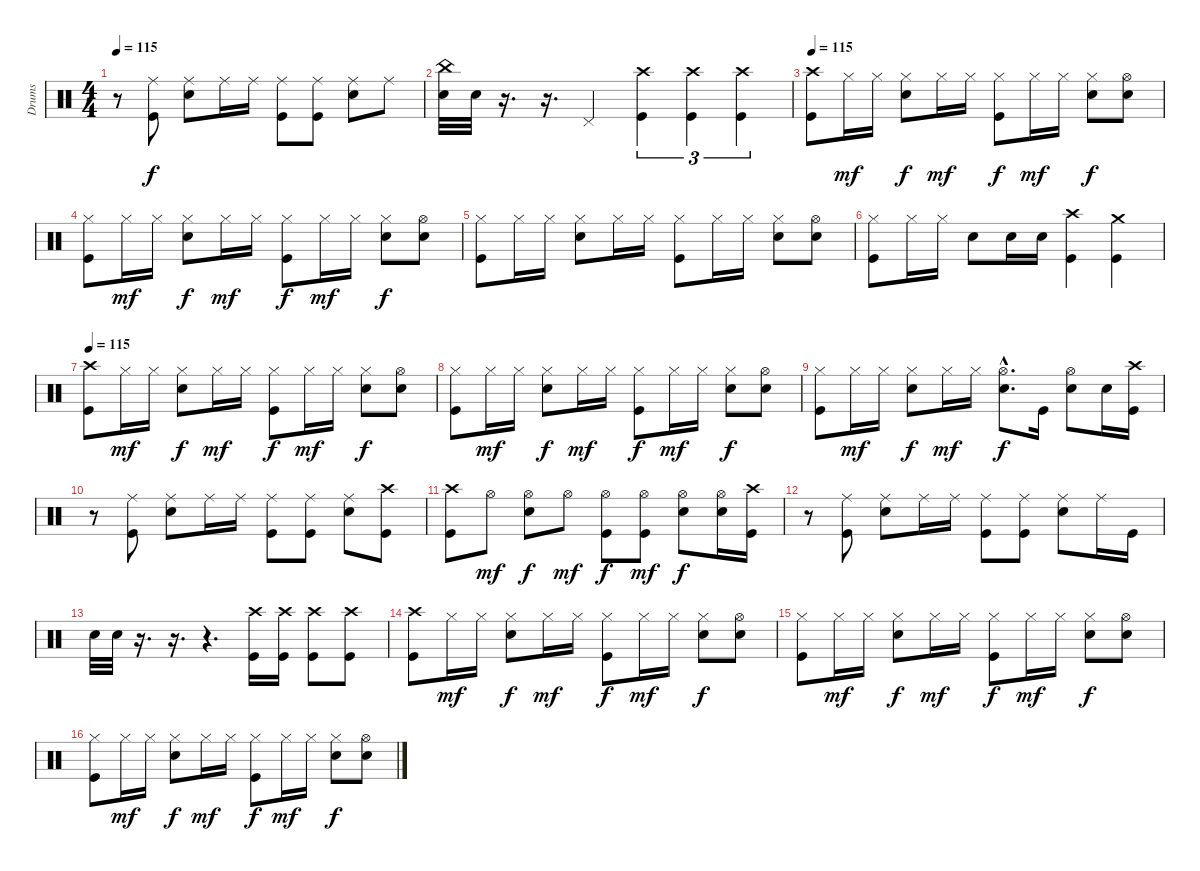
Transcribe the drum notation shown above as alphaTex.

\track ("Drums" "Drums") {instrument percussion}
\staff {score}
\articulation defaults
\ts (4 4)
\tempo 115
\clef neutral
\ks c
r.8{dy f} ("Ride (middle)" "Kick (hit)").8 ("Ride (middle)" "Snare (hit) 2").8 "Ride (middle)".16 "Ride (middle)".16 ("Ride (middle)" "Kick (hit)").8 ("Ride (middle)" "Kick (hit)").8 ("Ride (middle)" "Snare (hit) 2").8 "Ride (middle)".8 |
("China (hit)" "Snare (hit) 2").32 "Snare (hit) 2".32 r.16{d} r.16{d} "Pedal Hi-Hat (hit)".4 ("Crash high (hit)" "Kick (hit)").4{tu (3 2)} ("Crash high (hit)" "Kick (hit)").4{tu (3 2)} ("Crash high (hit)" "Kick (hit)").4{tu (3 2)} |
\tempo 115
("Crash high (hit)" "Kick (hit)").8 "Hi-Hat (closed)".16{dy mf} "Hi-Hat (closed)".16 ("Hi-Hat (closed)" "Snare (hit) 2").8{dy f} "Hi-Hat (closed)".16{dy mf} "Hi-Hat (closed)".16 ("Hi-Hat (closed)" "Kick (hit)").8{dy f} "Hi-Hat (closed)".16{dy mf} "Hi-Hat (closed)".16 ("Hi-Hat (closed)" "Snare (hit) 2").8{dy f} ("Hi-Hat (open)" "Snare (hit) 2").8 |
("Hi-Hat (closed)" "Kick (hit)").8 "Hi-Hat (closed)".16{dy mf} "Hi-Hat (closed)".16 ("Hi-Hat (closed)" "Snare (hit) 2").8{dy f} "Hi-Hat (closed)".16{dy mf} "Hi-Hat (closed)".16 ("Hi-Hat (closed)" "Kick (hit)").8{dy f} "Hi-Hat (closed)".16{dy mf} "Hi-Hat (closed)".16 ("Hi-Hat (closed)" "Snare (hit) 2").8{dy f} ("Hi-Hat (open)" "Snare (hit) 2").8 |
("Hi-Hat (closed)" "Kick (hit)").8 "Hi-Hat (closed)".16 "Hi-Hat (closed)".16 ("Hi-Hat (closed)" "Snare (hit) 2").8 "Hi-Hat (closed)".16 "Hi-Hat (closed)".16 ("Hi-Hat (closed)" "Kick (hit)").8 "Hi-Hat (closed)".16 "Hi-Hat (closed)".16 ("Hi-Hat (closed)" "Snare (hit) 2").8 ("Hi-Hat (open)" "Snare (hit) 2").8 |
("Hi-Hat (closed)" "Kick (hit)").8 "Hi-Hat (closed)".16 "Hi-Hat (closed)".16 "Snare (hit) 2".8 "Snare (hit) 2".16 "Snare (hit) 2".16 ("Crash high (hit)" "Kick (hit)").4 ("Crash medium (hit)" "Kick (hit)").4 |
\tempo 115
("Crash high (hit)" "Kick (hit)").8 "Hi-Hat (closed)".16{dy mf} "Hi-Hat (closed)".16 ("Hi-Hat (closed)" "Snare (hit) 2").8{dy f} "Hi-Hat (closed)".16{dy mf} "Hi-Hat (closed)".16 ("Hi-Hat (closed)" "Kick (hit)").8{dy f} "Hi-Hat (closed)".16{dy mf} "Hi-Hat (closed)".16 ("Hi-Hat (closed)" "Snare (hit) 2").8{dy f} ("Hi-Hat (open)" "Snare (hit) 2").8 |
("Hi-Hat (closed)" "Kick (hit)").8 "Hi-Hat (closed)".16{dy mf} "Hi-Hat (closed)".16 ("Hi-Hat (closed)" "Snare (hit) 2").8{dy f} "Hi-Hat (closed)".16{dy mf} "Hi-Hat (closed)".16 ("Hi-Hat (closed)" "Kick (hit)").8{dy f} "Hi-Hat (closed)".16{dy mf} "Hi-Hat (closed)".16 ("Hi-Hat (closed)" "Snare (hit) 2").8{dy f} ("Hi-Hat (open)" "Snare (hit) 2").8 |
("Hi-Hat (closed)" "Kick (hit)").8 "Hi-Hat (closed)".16{dy mf} "Hi-Hat (closed)".16 ("Hi-Hat (closed)" "Snare (hit) 2").8{dy f} "Hi-Hat (closed)".16{dy mf} "Hi-Hat (closed)".16 ("Hi-Hat (open)"{hac} "Snare (hit) 2"{hac}).8{d dy f} "Kick (hit)".16 ("Hi-Hat (open)" "Snare (hit) 2").8 "Snare (hit) 2".16 ("Crash high (hit)" "Kick (hit)").16 |
r.8 ("Ride (middle)" "Kick (hit)").8 ("Ride (middle)" "Snare (hit) 2").8 "Ride (middle)".16 "Ride (middle)".16 ("Ride (middle)" "Kick (hit)").8 ("Ride (middle)" "Kick (hit)").8 ("Ride (middle)" "Snare (hit) 2").8 ("Crash high (hit)" "Kick (hit)").8 |
("Crash high (hit)" "Kick (hit)").8 "Hi-Hat (open)".8{dy mf} ("Hi-Hat (open)" "Snare (hit) 2").8{dy f} "Hi-Hat (open)".8{dy mf} ("Hi-Hat (open)" "Kick (hit)").8{dy f} ("Hi-Hat (open)" "Kick (hit)").8{dy mf} ("Hi-Hat (open)" "Snare (hit) 2").8{dy f} ("Hi-Hat (open)" "Snare (hit) 2").16 ("Crash high (hit)" "Kick (hit)").16 |
r.8 ("Ride (middle)" "Kick (hit)").8 ("Ride (middle)" "Snare (hit) 2").8 "Ride (middle)".16 "Ride (middle)".16 ("Ride (middle)" "Kick (hit)").8 ("Ride (middle)" "Kick (hit)").8 ("Ride (middle)" "Snare (hit) 2").8 "Ride (middle)".16 "Kick (hit)".16 |
"Snare (hit) 2".32 "Snare (hit) 2".32 r.16{d} r.16{d} r.4{d} ("Crash high (hit)" "Kick (hit)").16 ("Crash high (hit)" "Kick (hit)").16 ("Crash high (hit)" "Kick (hit)").8 ("Crash high (hit)" "Kick (hit)").8 |
("Crash high (hit)" "Kick (hit)").8 "Hi-Hat (closed)".16{dy mf} "Hi-Hat (closed)".16 ("Hi-Hat (closed)" "Snare (hit) 2").8{dy f} "Hi-Hat (closed)".16{dy mf} "Hi-Hat (closed)".16 ("Hi-Hat (closed)" "Kick (hit)").8{dy f} "Hi-Hat (closed)".16{dy mf} "Hi-Hat (closed)".16 ("Hi-Hat (closed)" "Snare (hit) 2").8{dy f} ("Hi-Hat (open)" "Snare (hit) 2").8 |
("Hi-Hat (closed)" "Kick (hit)").8 "Hi-Hat (closed)".16{dy mf} "Hi-Hat (closed)".16 ("Hi-Hat (closed)" "Snare (hit) 2").8{dy f} "Hi-Hat (closed)".16{dy mf} "Hi-Hat (closed)".16 ("Hi-Hat (closed)" "Kick (hit)").8{dy f} "Hi-Hat (closed)".16{dy mf} "Hi-Hat (closed)".16 ("Hi-Hat (closed)" "Snare (hit) 2").8{dy f} ("Hi-Hat (open)" "Snare (hit) 2").8 |
("Hi-Hat (closed)" "Kick (hit)").8 "Hi-Hat (closed)".16{dy mf} "Hi-Hat (closed)".16 ("Hi-Hat (closed)" "Snare (hit) 2").8{dy f} "Hi-Hat (closed)".16{dy mf} "Hi-Hat (closed)".16 ("Hi-Hat (closed)" "Kick (hit)").8{dy f} "Hi-Hat (closed)".16{dy mf} "Hi-Hat (closed)".16 ("Hi-Hat (closed)" "Snare (hit) 2").8{dy f} ("Hi-Hat (open)" "Snare (hit) 2").8
